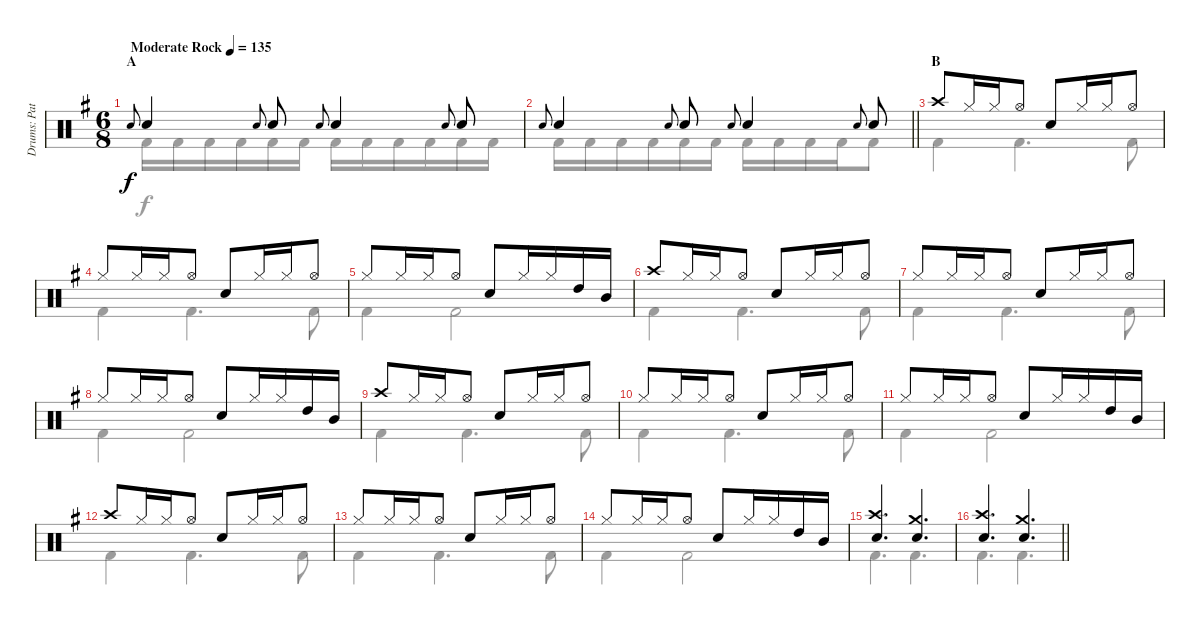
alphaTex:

\track ("Drums: Pat" "Drums: Pat") {instrument percussion}
\staff {score}
\articulation defaults
\voice
\ts (6 8)
\section ("" "A")
\tempo (135 "Moderate Rock")
\clef neutral
\ks g "Electric Snare (hit)".8{gr onbeat dy f} "Snare (hit) 2".4 "Electric Snare (hit)".8{gr onbeat} "Snare (hit) 2".8 "Electric Snare (hit)".8{gr onbeat} "Snare (hit) 2".4 "Electric Snare (hit)".8{gr onbeat} "Snare (hit) 2".8
|
\barLineRight lightlight "Electric Snare (hit)".8{gr onbeat} "Snare (hit) 2".4 "Electric Snare (hit)".8{gr onbeat} "Snare (hit) 2".8 "Electric Snare (hit)".8{gr onbeat} "Snare (hit) 2".4 "Electric Snare (hit)".8{gr onbeat} "Snare (hit) 2".8
|
\section ("" "B")
"Crash high (hit)".8 "Hi-Hat (closed)".16 "Hi-Hat (closed)".16 "Hi-Hat (open)".8 "Snare (hit) 2".8 "Hi-Hat (closed)".16 "Hi-Hat (closed)".16 "Hi-Hat (open)".8 |
"Hi-Hat (closed)".8 "Hi-Hat (closed)".16 "Hi-Hat (closed)".16 "Hi-Hat (open)".8 "Snare (hit) 2".8 "Hi-Hat (closed)".16 "Hi-Hat (closed)".16 "Hi-Hat (open)".8 |
"Hi-Hat (closed)".8 "Hi-Hat (closed)".16 "Hi-Hat (closed)".16 "Hi-Hat (open)".8 "Snare (hit) 2".8 "Hi-Hat (closed)".16 "Hi-Hat (closed)".16 "High Tom (hit)".16 "Mid Tom (hit)".16 |
"Crash high (hit)".8 "Hi-Hat (closed)".16 "Hi-Hat (closed)".16 "Hi-Hat (open)".8 "Snare (hit) 2".8 "Hi-Hat (closed)".16 "Hi-Hat (closed)".16 "Hi-Hat (open)".8 |
"Hi-Hat (closed)".8 "Hi-Hat (closed)".16 "Hi-Hat (closed)".16 "Hi-Hat (open)".8 "Snare (hit) 2".8 "Hi-Hat (closed)".16 "Hi-Hat (closed)".16 "Hi-Hat (open)".8 |
"Hi-Hat (closed)".8 "Hi-Hat (closed)".16 "Hi-Hat (closed)".16 "Hi-Hat (open)".8 "Snare (hit) 2".8 "Hi-Hat (closed)".16 "Hi-Hat (closed)".16 "High Tom (hit)".16 "Mid Tom (hit)".16 |
"Crash high (hit)".8 "Hi-Hat (closed)".16 "Hi-Hat (closed)".16 "Hi-Hat (open)".8 "Snare (hit) 2".8 "Hi-Hat (closed)".16 "Hi-Hat (closed)".16 "Hi-Hat (open)".8 |
"Hi-Hat (closed)".8 "Hi-Hat (closed)".16 "Hi-Hat (closed)".16 "Hi-Hat (open)".8 "Snare (hit) 2".8 "Hi-Hat (closed)".16 "Hi-Hat (closed)".16 "Hi-Hat (open)".8 |
"Hi-Hat (closed)".8 "Hi-Hat (closed)".16 "Hi-Hat (closed)".16 "Hi-Hat (open)".8 "Snare (hit) 2".8 "Hi-Hat (closed)".16 "Hi-Hat (closed)".16 "High Tom (hit)".16 "Mid Tom (hit)".16 |
"Crash high (hit)".8 "Hi-Hat (closed)".16 "Hi-Hat (closed)".16 "Hi-Hat (open)".8 "Snare (hit) 2".8 "Hi-Hat (closed)".16 "Hi-Hat (closed)".16 "Hi-Hat (open)".8 |
"Hi-Hat (closed)".8 "Hi-Hat (closed)".16 "Hi-Hat (closed)".16 "Hi-Hat (open)".8 "Snare (hit) 2".8 "Hi-Hat (closed)".16 "Hi-Hat (closed)".16 "Hi-Hat (open)".8 |
"Hi-Hat (closed)".8 "Hi-Hat (closed)".16 "Hi-Hat (closed)".16 "Hi-Hat (open)".8 "Snare (hit) 2".8 "Hi-Hat (closed)".16 "Hi-Hat (closed)".16 "High Tom (hit)".16 "Mid Tom (hit)".16 |
("Crash high (hit)"{acc b} "Snare (hit) 2").4{d} ("Crash medium (hit)" "Snare (hit) 2").4{d} |
\barLineRight lightlight
("Crash high (hit)"{acc b} "Snare (hit) 2").4{d} ("Crash medium (hit)" "Snare (hit) 2").4{d}
\voice
\clef neutral
\ottava regular
\simile none
\ks g "Kick (hit) 2".16{dy f} "Kick (hit) 2".16 "Kick (hit) 2".16 "Kick (hit) 2".16 "Kick (hit) 2".16 "Kick (hit) 2".16 "Kick (hit) 2".16 "Kick (hit) 2".16 "Kick (hit) 2".16 "Kick (hit) 2".16 "Kick (hit) 2".16 "Kick (hit) 2".16
|
\barLineRight lightlight "Kick (hit) 2".16 "Kick (hit) 2".16 "Kick (hit) 2".16 "Kick (hit) 2".16 "Kick (hit) 2".16 "Kick (hit) 2".16 "Kick (hit) 2".16 "Kick (hit) 2".16 "Kick (hit) 2".16 "Kick (hit) 2".16 "Kick (hit) 2".8
|
"Kick (hit) 2".4 "Kick (hit) 2".4{d} "Kick (hit) 2".8 |
"Kick (hit) 2".4 "Kick (hit) 2".4{d} "Kick (hit) 2".8 |
"Kick (hit) 2".4 "Kick (hit) 2".2 |
"Kick (hit) 2".4 "Kick (hit) 2".4{d} "Kick (hit) 2".8 |
"Kick (hit) 2".4 "Kick (hit) 2".4{d} "Kick (hit) 2".8 |
"Kick (hit) 2".4 "Kick (hit) 2".2 |
"Kick (hit) 2".4 "Kick (hit) 2".4{d} "Kick (hit) 2".8 |
"Kick (hit) 2".4 "Kick (hit) 2".4{d} "Kick (hit) 2".8 |
"Kick (hit) 2".4 "Kick (hit) 2".2 |
"Kick (hit) 2".4 "Kick (hit) 2".4{d} "Kick (hit) 2".8 |
"Kick (hit) 2".4 "Kick (hit) 2".4{d} "Kick (hit) 2".8 |
"Kick (hit) 2".4 "Kick (hit) 2".2 |
"Kick (hit) 2".4{d} "Kick (hit) 2".4{d} |
\barLineRight lightlight "Kick (hit) 2".4{d} "Kick (hit) 2".4{d}
